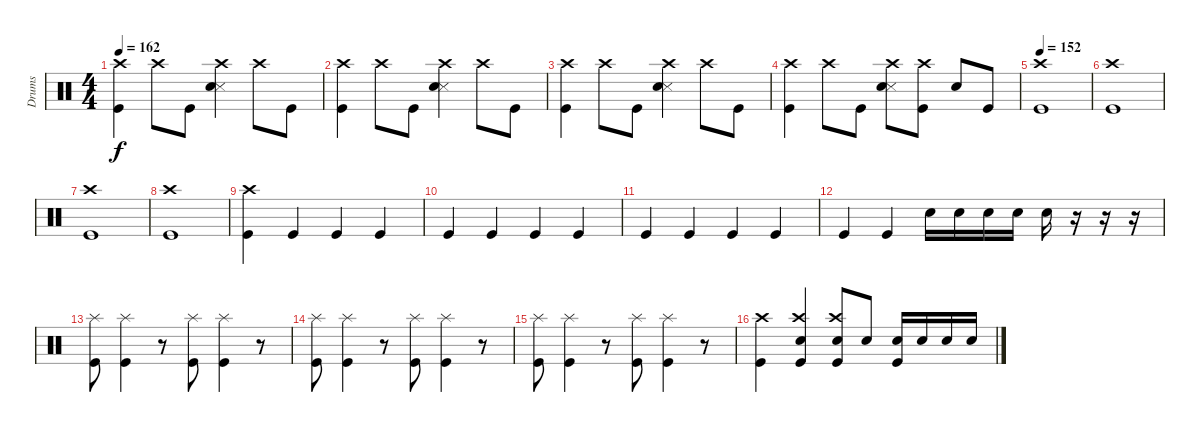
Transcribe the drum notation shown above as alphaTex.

\track ("Drums" "Drums") {instrument percussion}
\staff {score}
\articulation defaults
\ts (4 4)
\tempo 162
\clef neutral
\ks c
("Kick (hit)" "Crash high (hit)").4{dy f} "Crash high (hit)".8 "Kick (hit)".8 ("Metronome (hit)" "Snare (hit) 2" "Crash high (hit)").4 "Crash high (hit)".8 "Kick (hit)".8 |
("Kick (hit)" "Crash high (hit)").4 "Crash high (hit)".8 "Kick (hit)".8 ("Metronome (hit)" "Snare (hit) 2" "Crash high (hit)").4 "Crash high (hit)".8 "Kick (hit)".8 |
("Kick (hit)" "Crash high (hit)").4 "Crash high (hit)".8 "Kick (hit)".8 ("Metronome (hit)" "Snare (hit) 2" "Crash high (hit)").4 "Crash high (hit)".8 "Kick (hit)".8 |
("Kick (hit)" "Crash high (hit)").4 "Crash high (hit)".8 "Kick (hit)".8 ("Metronome (hit)" "Snare (hit) 2" "Crash high (hit)").8 ("Kick (hit)" "Crash high (hit)").8 "Snare (hit) 2".8 "Kick (hit)".8 |
\tempo 152
("Kick (hit)" "Crash high (hit)").1 |
("Kick (hit)" "Crash high (hit)").1 |
("Kick (hit)" "Crash high (hit)").1 |
("Kick (hit)" "Crash high (hit)").1 |
("Kick (hit)" "Crash high (hit)").4 "Kick (hit)".4 "Kick (hit)".4 "Kick (hit)".4 |
"Kick (hit)".4 "Kick (hit)".4 "Kick (hit)".4 "Kick (hit)".4 |
"Kick (hit)".4 "Kick (hit)".4 "Kick (hit)".4 "Kick (hit)".4 |
"Kick (hit)".4 "Kick (hit)".4 "Snare (hit) 2".16 "Snare (hit) 2".16 "Snare (hit) 2".16 "Snare (hit) 2".16 "Snare (hit) 2".16 r.16 r.16 r.16 |
("Kick (hit)" "Splash (hit)").8 ("Kick (hit)" "Splash (hit)").4 r.8 ("Kick (hit)" "Splash (hit)").8 ("Kick (hit)" "Splash (hit)").4 r.8 |
("Kick (hit)" "Splash (hit)").8 ("Kick (hit)" "Splash (hit)").4 r.8 ("Kick (hit)" "Splash (hit)").8 ("Kick (hit)" "Splash (hit)").4 r.8 |
("Kick (hit)" "Splash (hit)").8 ("Kick (hit)" "Splash (hit)").4 r.8 ("Kick (hit)" "Splash (hit)").8 ("Kick (hit)" "Splash (hit)").4 r.8 |
("Kick (hit)" "Crash high (hit)").4 ("Kick (hit)" "Snare (hit) 2" "Crash high (hit)").4 ("Kick (hit)" "Snare (hit) 2" "Crash high (hit)").8 "Snare (hit) 2".8 ("Kick (hit)" "Snare (hit) 2").16 "Snare (hit) 2".16 "Snare (hit) 2".16 "Snare (hit) 2".16
